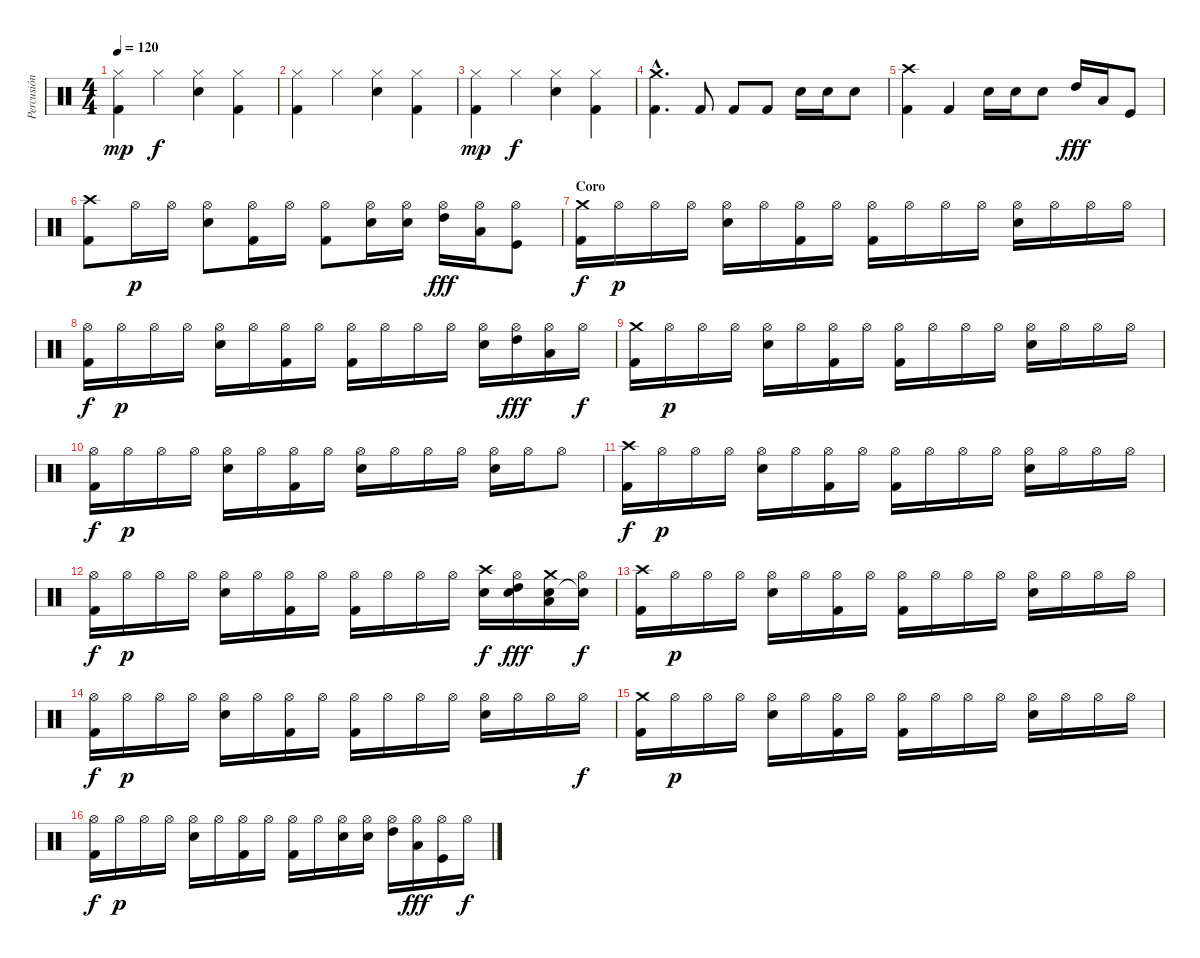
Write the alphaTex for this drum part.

\track ("Percusión" "Percusión") {instrument percussion}
\staff {score}
\articulation defaults
\ts (4 4)
\tempo 120
\clef neutral
\ks c
("Hi-Hat (closed)" "Kick (hit) 2").4{dy mp} "Hi-Hat (closed)".4{dy f} ("Hi-Hat (closed)" "Snare (hit) 2").4 ("Hi-Hat (closed)" "Kick (hit) 2").4 |
("Hi-Hat (closed)" "Kick (hit) 2").4 "Hi-Hat (closed)".4 ("Hi-Hat (closed)" "Snare (hit) 2").4 ("Hi-Hat (closed)" "Kick (hit) 2").4 |
("Hi-Hat (closed)" "Kick (hit) 2").4{dy mp} "Hi-Hat (closed)".4{dy f} ("Hi-Hat (closed)" "Snare (hit) 2").4 ("Hi-Hat (closed)" "Kick (hit) 2").4 |
("Kick (hit) 2"{hac} "Crash medium (hit)"{hac}).4{d} "Kick (hit) 2".8 "Kick (hit) 2".8 "Kick (hit) 2".8 "Snare (hit) 2".16 "Snare (hit) 2".16 "Snare (hit) 2".8 |
("Kick (hit) 2" "Crash high (hit)").4 "Kick (hit) 2".4 "Snare (hit) 2".16 "Snare (hit) 2".16 "Snare (hit) 2".8 "High Tom (hit)".16{dy fff} "Low Tom (hit)".16 "Kick (hit)".8 |
("Crash high (hit)" "Kick (hit) 2").8 "Hi-Hat (open)".16{dy p} "Hi-Hat (open)".16 ("Hi-Hat (open)" "Snare (hit) 2").8 ("Hi-Hat (open)" "Kick (hit) 2").16 "Hi-Hat (open)".16 ("Hi-Hat (open)" "Kick (hit) 2").8 ("Hi-Hat (open)" "Snare (hit) 2").16 ("Hi-Hat (open)" "Snare (hit) 2").16 ("Hi-Hat (open)" "High Tom (hit)").16{dy fff} ("Hi-Hat (open)" "Low Tom (hit)").16 ("Hi-Hat (open)" "Kick (hit)").8 |
\section ("" "Coro")
("Crash medium (hit)" "Kick (hit) 2").16{dy f} "Hi-Hat (open)".16{dy p} "Hi-Hat (open)".16 "Hi-Hat (open)".16 ("Hi-Hat (open)" "Snare (hit) 2").16 "Hi-Hat (open)".16 ("Hi-Hat (open)" "Kick (hit) 2").16 "Hi-Hat (open)".16 ("Hi-Hat (open)" "Kick (hit) 2").16 "Hi-Hat (open)".16 "Hi-Hat (open)".16 "Hi-Hat (open)".16 ("Hi-Hat (open)" "Snare (hit) 2").16 "Hi-Hat (open)".16 "Hi-Hat (open)".16 "Hi-Hat (open)".16 |
("Hi-Hat (open)" "Kick (hit) 2").16{dy f} "Hi-Hat (open)".16{dy p} "Hi-Hat (open)".16 "Hi-Hat (open)".16 ("Hi-Hat (open)" "Snare (hit) 2").16 "Hi-Hat (open)".16 ("Hi-Hat (open)" "Kick (hit) 2").16 "Hi-Hat (open)".16 ("Hi-Hat (open)" "Kick (hit) 2").16 "Hi-Hat (open)".16 "Hi-Hat (open)".16 "Hi-Hat (open)".16 ("Hi-Hat (open)" "Snare (hit) 2").16 ("Hi-Hat (open)" "High Tom (hit)").16{dy fff} ("Hi-Hat (open)" "Low Tom (hit)").16 "Hi-Hat (open)".16{dy f} |
("Crash medium (hit)" "Kick (hit) 2").16 "Hi-Hat (open)".16{dy p} "Hi-Hat (open)".16 "Hi-Hat (open)".16 ("Hi-Hat (open)" "Snare (hit) 2").16 "Hi-Hat (open)".16 ("Hi-Hat (open)" "Kick (hit) 2").16 "Hi-Hat (open)".16 ("Hi-Hat (open)" "Kick (hit) 2").16 "Hi-Hat (open)".16 "Hi-Hat (open)".16 "Hi-Hat (open)".16 ("Hi-Hat (open)" "Snare (hit) 2").16 "Hi-Hat (open)".16 "Hi-Hat (open)".16 "Hi-Hat (open)".16 |
("Hi-Hat (open)" "Kick (hit) 2").16{dy f} "Hi-Hat (open)".16{dy p} "Hi-Hat (open)".16 "Hi-Hat (open)".16 ("Hi-Hat (open)" "Snare (hit) 2").16 "Hi-Hat (open)".16 ("Hi-Hat (open)" "Kick (hit) 2").16 "Hi-Hat (open)".16 ("Hi-Hat (open)" "Snare (hit) 2").16 "Hi-Hat (open)".16 "Hi-Hat (open)".16 "Hi-Hat (open)".16 ("Hi-Hat (open)" "Snare (hit) 2").16 "Hi-Hat (open)".16 "Hi-Hat (open)".8 |
("Crash high (hit)" "Kick (hit) 2").16{dy f} "Hi-Hat (open)".16{dy p} "Hi-Hat (open)".16 "Hi-Hat (open)".16 ("Hi-Hat (open)" "Snare (hit) 2").16 "Hi-Hat (open)".16 ("Hi-Hat (open)" "Kick (hit) 2").16 "Hi-Hat (open)".16 ("Hi-Hat (open)" "Kick (hit) 2").16 "Hi-Hat (open)".16 "Hi-Hat (open)".16 "Hi-Hat (open)".16 ("Hi-Hat (open)" "Snare (hit) 2").16 "Hi-Hat (open)".16 "Hi-Hat (open)".16 "Hi-Hat (open)".16 |
("Hi-Hat (open)" "Kick (hit) 2").16{dy f} "Hi-Hat (open)".16{dy p} "Hi-Hat (open)".16 "Hi-Hat (open)".16 ("Hi-Hat (open)" "Snare (hit) 2").16 "Hi-Hat (open)".16 ("Hi-Hat (open)" "Kick (hit) 2").16 "Hi-Hat (open)".16 ("Hi-Hat (open)" "Kick (hit) 2").16 "Hi-Hat (open)".16 "Hi-Hat (open)".16 "Hi-Hat (open)".16 ("Snare (hit) 2" "Crash high (hit)").16{dy f} ("Hi-Hat (open)" "High Tom (hit)" "Snare (hit)").16{dy fff} ("Low Tom (hit)" "Snare (hit) 2" "Crash medium (hit)").16 ("Hi-Hat (open)" "Snare (hit)"{t}).16{dy f} |
("Crash high (hit)" "Kick (hit) 2").16 "Hi-Hat (open)".16{dy p} "Hi-Hat (open)".16 "Hi-Hat (open)".16 ("Hi-Hat (open)" "Snare (hit) 2").16 "Hi-Hat (open)".16 ("Hi-Hat (open)" "Kick (hit) 2").16 "Hi-Hat (open)".16 ("Hi-Hat (open)" "Kick (hit) 2").16 "Hi-Hat (open)".16 "Hi-Hat (open)".16 "Hi-Hat (open)".16 ("Hi-Hat (open)" "Snare (hit) 2").16 "Hi-Hat (open)".16 "Hi-Hat (open)".16 "Hi-Hat (open)".16 |
("Hi-Hat (open)" "Kick (hit) 2").16{dy f} "Hi-Hat (open)".16{dy p} "Hi-Hat (open)".16 "Hi-Hat (open)".16 ("Hi-Hat (open)" "Snare (hit) 2").16 "Hi-Hat (open)".16 ("Hi-Hat (open)" "Kick (hit) 2").16 "Hi-Hat (open)".16 ("Hi-Hat (open)" "Kick (hit) 2").16 "Hi-Hat (open)".16 "Hi-Hat (open)".16 "Hi-Hat (open)".16 ("Hi-Hat (open)" "Snare (hit) 2").16 "Hi-Hat (open)".16 "Hi-Hat (open)".16 "Hi-Hat (open)".16{dy f} |
("Crash medium (hit)" "Kick (hit) 2").16 "Hi-Hat (open)".16{dy p} "Hi-Hat (open)".16 "Hi-Hat (open)".16 ("Hi-Hat (open)" "Snare (hit) 2").16 "Hi-Hat (open)".16 ("Hi-Hat (open)" "Kick (hit) 2").16 "Hi-Hat (open)".16 ("Hi-Hat (open)" "Kick (hit) 2").16 "Hi-Hat (open)".16 "Hi-Hat (open)".16 "Hi-Hat (open)".16 ("Hi-Hat (open)" "Snare (hit) 2").16 "Hi-Hat (open)".16 "Hi-Hat (open)".16 "Hi-Hat (open)".16 |
("Hi-Hat (open)" "Kick (hit) 2").16{dy f} "Hi-Hat (open)".16{dy p} "Hi-Hat (open)".16 "Hi-Hat (open)".16 ("Hi-Hat (open)" "Snare (hit) 2").16 "Hi-Hat (open)".16 ("Hi-Hat (open)" "Kick (hit) 2").16 "Hi-Hat (open)".16 ("Hi-Hat (open)" "Kick (hit) 2").16 "Hi-Hat (open)".16 ("Hi-Hat (open)" "Snare (hit) 2").16 ("Hi-Hat (open)" "Snare (hit) 2").16 ("Hi-Hat (open)" "High Tom (hit)").16 ("Hi-Hat (open)" "Low Tom (hit)").16{dy fff} ("Hi-Hat (open)" "Kick (hit)").16 "Hi-Hat (open)".16{dy f}
